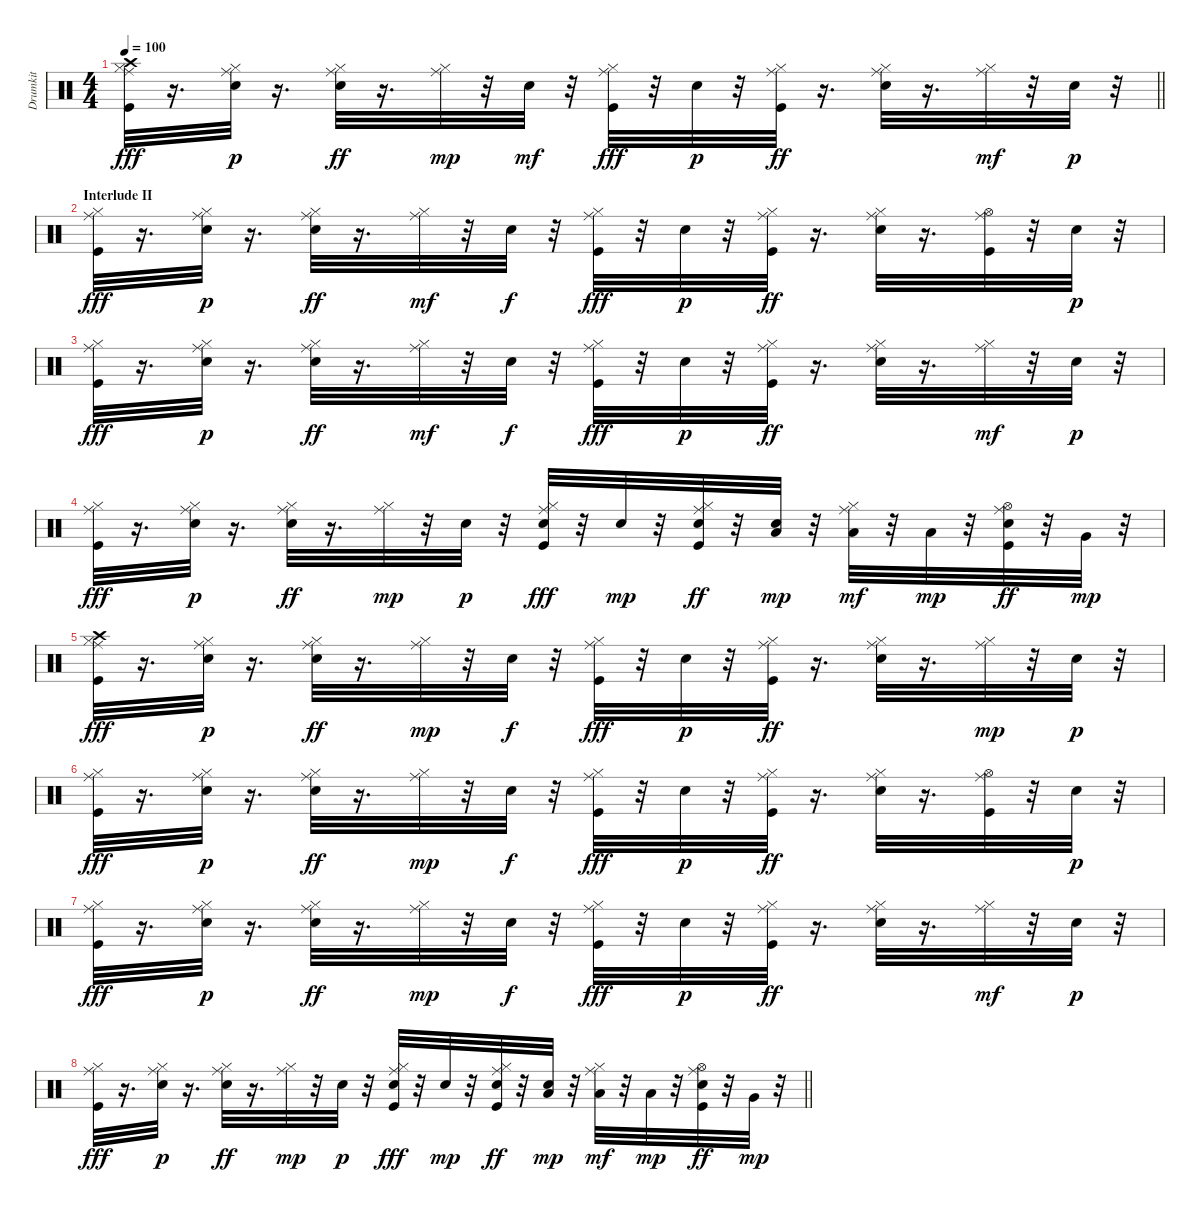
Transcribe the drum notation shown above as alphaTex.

\track ("Drumkit" "Drumkit") {instrument percussion}
\staff {score}
\articulation defaults
\ts (4 4)
\tempo 100
\clef neutral
\barLineRight lightlight
\ks c
("Kick (hit)" "Hi-Hat (closed)" "Crash high (hit)" "Ride (middle)").32{dy fff} r.16{d} ("Snare (hit) 2" "Hi-Hat (closed)" "Ride (middle)").32{dy p} r.16{d} ("Snare (hit) 2" "Hi-Hat (closed)" "Ride (middle)").32{dy ff} r.16{d} ("Hi-Hat (closed)" "Ride (middle)").32{dy mp} r.32 "Snare (hit) 2".32{dy mf} r.32 ("Kick (hit)" "Hi-Hat (closed)" "Ride (middle)").32{dy fff} r.32 "Snare (hit) 2".32{dy p} r.32 ("Kick (hit)" "Hi-Hat (closed)" "Ride (middle)").32{dy ff} r.16{d} ("Snare (hit) 2" "Hi-Hat (closed)" "Ride (middle)").32 r.16{d} ("Hi-Hat (closed)" "Ride (middle)").32{dy mf} r.32 "Snare (hit) 2".32{dy p} r.32 |
\section ("" "Interlude II")
("Kick (hit)" "Hi-Hat (closed)" "Ride (middle)").32{dy fff} r.16{d} ("Snare (hit) 2" "Hi-Hat (closed)" "Ride (middle)").32{dy p} r.16{d} ("Snare (hit) 2" "Hi-Hat (closed)" "Ride (middle)").32{dy ff} r.16{d} ("Hi-Hat (closed)" "Ride (middle)").32{dy mf} r.32 "Snare (hit) 2".32{dy f} r.32 ("Kick (hit)" "Hi-Hat (closed)" "Ride (middle)").32{dy fff} r.32 "Snare (hit) 2".32{dy p} r.32 ("Kick (hit)" "Hi-Hat (closed)" "Ride (middle)").32{dy ff} r.16{d} ("Snare (hit) 2" "Hi-Hat (closed)" "Ride (middle)").32 r.16{d} ("Kick (hit)" "Hi-Hat (open)" "Ride (middle)").32 r.32 "Snare (hit) 2".32{dy p} r.32 |
("Kick (hit)" "Hi-Hat (closed)" "Ride (middle)").32{dy fff} r.16{d} ("Snare (hit) 2" "Hi-Hat (closed)" "Ride (middle)").32{dy p} r.16{d} ("Snare (hit) 2" "Hi-Hat (closed)" "Ride (middle)").32{dy ff} r.16{d} ("Hi-Hat (closed)" "Ride (middle)").32{dy mf} r.32 "Snare (hit) 2".32{dy f} r.32 ("Kick (hit)" "Hi-Hat (closed)" "Ride (middle)").32{dy fff} r.32 "Snare (hit) 2".32{dy p} r.32 ("Kick (hit)" "Hi-Hat (closed)" "Ride (middle)").32{dy ff} r.16{d} ("Snare (hit) 2" "Hi-Hat (closed)" "Ride (middle)").32 r.16{d} ("Hi-Hat (closed)" "Ride (middle)").32{dy mf} r.32 "Snare (hit) 2".32{dy p} r.32 |
("Kick (hit)" "Hi-Hat (closed)" "Ride (middle)").32{dy fff} r.16{d} ("Snare (hit) 2" "Hi-Hat (closed)" "Ride (middle)").32{dy p} r.16{d} ("Snare (hit) 2" "Hi-Hat (closed)" "Ride (middle)").32{dy ff} r.16{d} ("Hi-Hat (closed)" "Ride (middle)").32{dy mp} r.32 "Snare (hit) 2".32{dy p} r.32 ("Kick (hit)" "Snare (hit) 2" "Hi-Hat (closed)" "Ride (middle)").32{dy fff} r.32 "Snare (hit) 2".32{dy mp} r.32 ("Kick (hit)" "Snare (hit) 2" "Hi-Hat (closed)" "Ride (middle)").32{dy ff} r.32 ("Snare (hit) 2" "Low Tom (hit)").32{dy mp} r.32 ("Hi-Hat (closed)" "Low Tom (hit)" "Ride (middle)").32{dy mf} r.32 "Low Tom (hit)".32{dy mp} r.32 ("Kick (hit)" "Snare (hit) 2" "Hi-Hat (open)" "Ride (middle)").32{dy ff} r.32 "Very Low Tom (hit)".32{dy mp} r.32 |
("Kick (hit)" "Hi-Hat (closed)" "Crash high (hit)" "Ride (middle)").32{dy fff} r.16{d} ("Snare (hit) 2" "Hi-Hat (closed)" "Ride (middle)").32{dy p} r.16{d} ("Snare (hit) 2" "Hi-Hat (closed)" "Ride (middle)").32{dy ff} r.16{d} ("Hi-Hat (closed)" "Ride (middle)").32{dy mp} r.32 "Snare (hit) 2".32{dy f} r.32 ("Kick (hit)" "Hi-Hat (closed)" "Ride (middle)").32{dy fff} r.32 "Snare (hit) 2".32{dy p} r.32 ("Kick (hit)" "Hi-Hat (closed)" "Ride (middle)").32{dy ff} r.16{d} ("Snare (hit) 2" "Hi-Hat (closed)" "Ride (middle)").32 r.16{d} ("Hi-Hat (closed)" "Ride (middle)").32{dy mp} r.32 "Snare (hit) 2".32{dy p} r.32 |
("Kick (hit)" "Hi-Hat (closed)" "Ride (middle)").32{dy fff} r.16{d} ("Snare (hit) 2" "Hi-Hat (closed)" "Ride (middle)").32{dy p} r.16{d} ("Snare (hit) 2" "Hi-Hat (closed)" "Ride (middle)").32{dy ff} r.16{d} ("Hi-Hat (closed)" "Ride (middle)").32{dy mp} r.32 "Snare (hit) 2".32{dy f} r.32 ("Kick (hit)" "Hi-Hat (closed)" "Ride (middle)").32{dy fff} r.32 "Snare (hit) 2".32{dy p} r.32 ("Kick (hit)" "Hi-Hat (closed)" "Ride (middle)").32{dy ff} r.16{d} ("Snare (hit) 2" "Hi-Hat (closed)" "Ride (middle)").32 r.16{d} ("Kick (hit)" "Hi-Hat (open)" "Ride (middle)").32 r.32 "Snare (hit) 2".32{dy p} r.32 |
("Kick (hit)" "Hi-Hat (closed)" "Ride (middle)").32{dy fff} r.16{d} ("Snare (hit) 2" "Hi-Hat (closed)" "Ride (middle)").32{dy p} r.16{d} ("Snare (hit) 2" "Hi-Hat (closed)" "Ride (middle)").32{dy ff} r.16{d} ("Hi-Hat (closed)" "Ride (middle)").32{dy mp} r.32 "Snare (hit) 2".32{dy f} r.32 ("Kick (hit)" "Hi-Hat (closed)" "Ride (middle)").32{dy fff} r.32 "Snare (hit) 2".32{dy p} r.32 ("Kick (hit)" "Hi-Hat (closed)" "Ride (middle)").32{dy ff} r.16{d} ("Snare (hit) 2" "Hi-Hat (closed)" "Ride (middle)").32 r.16{d} ("Hi-Hat (closed)" "Ride (middle)").32{dy mf} r.32 "Snare (hit) 2".32{dy p} r.32 |
\barLineRight lightlight
("Kick (hit)" "Hi-Hat (closed)" "Ride (middle)").32{dy fff} r.16{d} ("Snare (hit) 2" "Hi-Hat (closed)" "Ride (middle)").32{dy p} r.16{d} ("Snare (hit) 2" "Hi-Hat (closed)" "Ride (middle)").32{dy ff} r.16{d} ("Hi-Hat (closed)" "Ride (middle)").32{dy mp} r.32 "Snare (hit) 2".32{dy p} r.32 ("Kick (hit)" "Snare (hit) 2" "Hi-Hat (closed)" "Ride (middle)").32{dy fff} r.32 "Snare (hit) 2".32{dy mp} r.32 ("Kick (hit)" "Snare (hit) 2" "Hi-Hat (closed)" "Ride (middle)").32{dy ff} r.32 ("Snare (hit) 2" "Low Tom (hit)").32{dy mp} r.32 ("Hi-Hat (closed)" "Low Tom (hit)" "Ride (middle)").32{dy mf} r.32 "Low Tom (hit)".32{dy mp} r.32 ("Kick (hit)" "Snare (hit) 2" "Hi-Hat (open)" "Ride (middle)").32{dy ff} r.32 "Very Low Tom (hit)".32{dy mp} r.32
